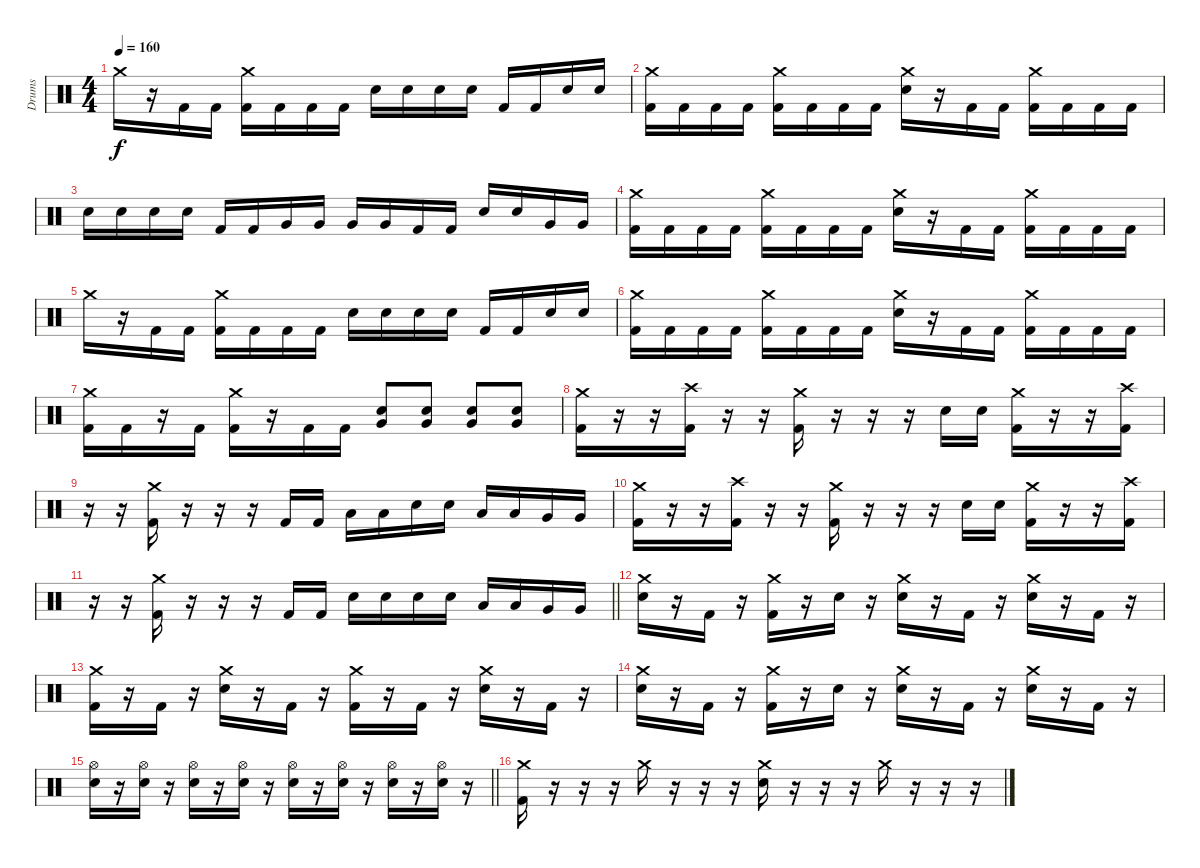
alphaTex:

\track ("Drums" "Drums") {instrument percussion}
\staff {score}
\articulation defaults
\ts (4 4)
\tempo 160
\clef neutral
\ks c "Crash medium (hit)".16{dy f}
r.16 "Kick (hit) 2".16 "Kick (hit) 2".16 ("Crash medium (hit)" "Kick (hit) 2").16 "Kick (hit) 2".16 "Kick (hit) 2".16 "Kick (hit) 2".16 "Electric Snare (hit)".16 "Electric Snare (hit)".16 "Electric Snare (hit)".16 "Electric Snare (hit)".16 "Kick (hit) 2".16 "Kick (hit) 2".16 "Electric Snare (hit)".16 "Electric Snare (hit)".16 |
("Crash medium (hit)" "Kick (hit) 2").16 "Kick (hit) 2".16 "Kick (hit) 2".16 "Kick (hit) 2".16 ("Crash medium (hit)" "Kick (hit) 2").16 "Kick (hit) 2".16 "Kick (hit) 2".16 "Kick (hit) 2".16 ("Crash medium (hit)" "Electric Snare (hit)").16 r.16 "Kick (hit) 2".16 "Kick (hit) 2".16 ("Crash medium (hit)" "Kick (hit) 2").16 "Kick (hit) 2".16 "Kick (hit) 2".16 "Kick (hit) 2".16 |
"Electric Snare (hit)".16 "Electric Snare (hit)".16 "Electric Snare (hit)".16 "Electric Snare (hit)".16 "Kick (hit) 2".16 "Kick (hit) 2".16 "Very Low Tom (hit)".16 "Very Low Tom (hit)".16 "Very Low Tom (hit)".16 "Very Low Tom (hit)".16 "Kick (hit) 2".16 "Kick (hit) 2".16 "Electric Snare (hit)".16 "Electric Snare (hit)".16 "Very Low Tom (hit)".16 "Very Low Tom (hit)".16 |
("Crash medium (hit)" "Kick (hit) 2").16 "Kick (hit) 2".16 "Kick (hit) 2".16 "Kick (hit) 2".16 ("Crash medium (hit)" "Kick (hit) 2").16 "Kick (hit) 2".16 "Kick (hit) 2".16 "Kick (hit) 2".16 ("Crash medium (hit)" "Electric Snare (hit)").16 r.16 "Kick (hit) 2".16 "Kick (hit) 2".16 ("Crash medium (hit)" "Kick (hit) 2").16 "Kick (hit) 2".16 "Kick (hit) 2".16 "Kick (hit) 2".16 |
"Crash medium (hit)".16 r.16 "Kick (hit) 2".16 "Kick (hit) 2".16 ("Crash medium (hit)" "Kick (hit) 2").16 "Kick (hit) 2".16 "Kick (hit) 2".16 "Kick (hit) 2".16 "Electric Snare (hit)".16 "Electric Snare (hit)".16 "Electric Snare (hit)".16 "Electric Snare (hit)".16 "Kick (hit) 2".16 "Kick (hit) 2".16 "Electric Snare (hit)".16 "Electric Snare (hit)".16 |
("Crash medium (hit)" "Kick (hit) 2").16 "Kick (hit) 2".16 "Kick (hit) 2".16 "Kick (hit) 2".16 ("Crash medium (hit)" "Kick (hit) 2").16 "Kick (hit) 2".16 "Kick (hit) 2".16 "Kick (hit) 2".16 ("Crash medium (hit)" "Electric Snare (hit)").16 r.16 "Kick (hit) 2".16 "Kick (hit) 2".16 ("Crash medium (hit)" "Kick (hit) 2").16 "Kick (hit) 2".16 "Kick (hit) 2".16 "Kick (hit) 2".16 |
("Crash medium (hit)" "Kick (hit) 2").16 "Kick (hit) 2".16 r.16 "Kick (hit) 2".16 ("Crash medium (hit)" "Kick (hit) 2").16 r.16 "Kick (hit) 2".16 "Kick (hit) 2".16 ("Very Low Tom (hit)" "Electric Snare (hit)").8 ("Very Low Tom (hit)" "Electric Snare (hit)").8 ("Very Low Tom (hit)" "Electric Snare (hit)").8 ("Very Low Tom (hit)" "Electric Snare (hit)").8 |
("Crash medium (hit)" "Kick (hit) 2").16 r.16 r.16 ("Crash high (hit)" "Kick (hit) 2").16 r.16 r.16 ("Crash medium (hit)" "Kick (hit) 2").16 r.16 r.16 r.16 "Electric Snare (hit)".16 "Electric Snare (hit)".16 ("Crash medium (hit)" "Kick (hit) 2").16 r.16 r.16 ("Crash high (hit)" "Kick (hit) 2").16 |
r.16 r.16 ("Crash medium (hit)" "Kick (hit) 2").16 r.16 r.16 r.16 "Kick (hit) 2".16 "Kick (hit) 2".16 "Low Tom (hit)".16 "Low Tom (hit)".16 "Electric Snare (hit)".16 "Electric Snare (hit)".16 "Low Tom (hit)".16 "Low Tom (hit)".16 "Very Low Tom (hit)".16 "Very Low Tom (hit)".16 |
("Crash medium (hit)" "Kick (hit) 2").16 r.16 r.16 ("Crash high (hit)" "Kick (hit) 2").16 r.16 r.16 ("Crash medium (hit)" "Kick (hit) 2").16 r.16 r.16 r.16 "Electric Snare (hit)".16 "Electric Snare (hit)".16 ("Crash medium (hit)" "Kick (hit) 2").16 r.16 r.16 ("Crash high (hit)" "Kick (hit) 2").16 |
\barLineRight lightlight
r.16 r.16 ("Crash medium (hit)" "Kick (hit) 2").16 r.16 r.16 r.16 "Kick (hit) 2".16 "Kick (hit) 2".16 "Electric Snare (hit)".16 "Electric Snare (hit)".16 "Electric Snare (hit)".16 "Electric Snare (hit)".16 "Low Tom (hit)".16 "Low Tom (hit)".16 "Very Low Tom (hit)".16 "Very Low Tom (hit)".16 |
("Crash medium (hit)" "Electric Snare (hit)").16 r.16 "Kick (hit) 2".16 r.16 ("Crash medium (hit)" "Kick (hit) 2").16 r.16 "Electric Snare (hit)".16 r.16 ("Crash medium (hit)" "Electric Snare (hit)").16 r.16 "Kick (hit) 2".16 r.16 ("Crash medium (hit)" "Electric Snare (hit)").16 r.16 "Kick (hit) 2".16 r.16 |
("Crash medium (hit)" "Kick (hit) 2").16 r.16 "Kick (hit) 2".16 r.16 ("Crash medium (hit)" "Electric Snare (hit)").16 r.16 "Kick (hit) 2".16 r.16 ("Crash medium (hit)" "Kick (hit) 2").16 r.16 "Kick (hit) 2".16 r.16 ("Crash medium (hit)" "Electric Snare (hit)").16 r.16 "Kick (hit) 2".16 r.16 |
("Crash medium (hit)" "Electric Snare (hit)").16 r.16 "Kick (hit) 2".16 r.16 ("Crash medium (hit)" "Kick (hit) 2").16 r.16 "Electric Snare (hit)".16 r.16 ("Crash medium (hit)" "Electric Snare (hit)").16 r.16 "Kick (hit) 2".16 r.16 ("Crash medium (hit)" "Electric Snare (hit)").16 r.16 "Kick (hit) 2".16 r.16 |
\barLineRight lightlight
("Hi-Hat (open)" "Electric Snare (hit)").16{volume 8} r.16{volume 13} ("Hi-Hat (open)" "Electric Snare (hit)").16 r.16 ("Hi-Hat (open)" "Electric Snare (hit)").16 r.16 ("Hi-Hat (open)" "Electric Snare (hit)").16 r.16 ("Hi-Hat (open)" "Electric Snare (hit)").16 r.16 ("Hi-Hat (open)" "Electric Snare (hit)").16 r.16 ("Hi-Hat (open)" "Electric Snare (hit)").16 r.16 ("Hi-Hat (open)" "Electric Snare (hit)").16 r.16 |
\section ("" "")
("Crash medium (hit)" "Kick (hit) 2").16 r.16 r.16 r.16 "Crash medium (hit)".16 r.16 r.16 r.16 ("Crash medium (hit)" "Electric Snare (hit)").16 r.16 r.16 r.16 "Crash medium (hit)".16 r.16 r.16 r.16
